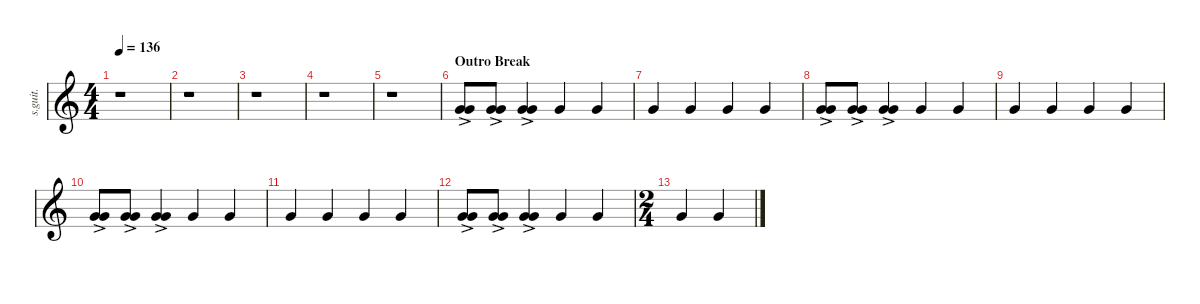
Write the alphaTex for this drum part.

\defaultSystemsLayout 4
\hideDynamics
\bracketExtendMode nobrackets
\track ("Shawn Crahan " "s.guit.") {instrument percussion}
\staff {score}
\articulation defaults
\ts (4 4)
\tempo 136
\clef g2
\ks c
r.1{dy fff} |
r.1 |
r.1 |
r.1 |
r.1 |
\section ("" "Outro Break")
("Very Low Tom (hit)"{ac} "Very Low Tom (hit)"{ac}).8{lyrics (0 "") lyrics (1 "") lyrics (2 "") lyrics (3 "") lyrics (4 "")} ("Very Low Tom (hit)"{ac} "Very Low Tom (hit)"{ac}).8{lyrics (0 "") lyrics (1 "") lyrics (2 "") lyrics (3 "") lyrics (4 "")} ("Very Low Tom (hit)"{ac} "Very Low Tom (hit)"{ac}).4{lyrics (0 "") lyrics (1 "") lyrics (2 "") lyrics (3 "") lyrics (4 "")} "Very Low Tom (hit)".4{lyrics (0 "") lyrics (1 "") lyrics (2 "") lyrics (3 "") lyrics (4 "")} "Very Low Tom (hit)".4{lyrics (0 "") lyrics (1 "") lyrics (2 "") lyrics (3 "") lyrics (4 "")} |
"Very Low Tom (hit)".4{lyrics (0 "") lyrics (1 "") lyrics (2 "") lyrics (3 "") lyrics (4 "")} "Very Low Tom (hit)".4{lyrics (0 "") lyrics (1 "") lyrics (2 "") lyrics (3 "") lyrics (4 "")} "Very Low Tom (hit)".4{lyrics (0 "") lyrics (1 "") lyrics (2 "") lyrics (3 "") lyrics (4 "")} "Very Low Tom (hit)".4{lyrics (0 "") lyrics (1 "") lyrics (2 "") lyrics (3 "") lyrics (4 "")} |
("Very Low Tom (hit)"{ac} "Very Low Tom (hit)"{ac}).8{lyrics (0 "") lyrics (1 "") lyrics (2 "") lyrics (3 "") lyrics (4 "")} ("Very Low Tom (hit)"{ac} "Very Low Tom (hit)"{ac}).8{lyrics (0 "") lyrics (1 "") lyrics (2 "") lyrics (3 "") lyrics (4 "")} ("Very Low Tom (hit)"{ac} "Very Low Tom (hit)"{ac}).4{lyrics (0 "") lyrics (1 "") lyrics (2 "") lyrics (3 "") lyrics (4 "")} "Very Low Tom (hit)".4{lyrics (0 "") lyrics (1 "") lyrics (2 "") lyrics (3 "") lyrics (4 "")} "Very Low Tom (hit)".4{lyrics (0 "") lyrics (1 "") lyrics (2 "") lyrics (3 "") lyrics (4 "")} |
"Very Low Tom (hit)".4{lyrics (0 "") lyrics (1 "") lyrics (2 "") lyrics (3 "") lyrics (4 "")} "Very Low Tom (hit)".4{lyrics (0 "") lyrics (1 "") lyrics (2 "") lyrics (3 "") lyrics (4 "")} "Very Low Tom (hit)".4{lyrics (0 "") lyrics (1 "") lyrics (2 "") lyrics (3 "") lyrics (4 "")} "Very Low Tom (hit)".4{lyrics (0 "") lyrics (1 "") lyrics (2 "") lyrics (3 "") lyrics (4 "")} |
("Very Low Tom (hit)"{ac} "Very Low Tom (hit)"{ac}).8{lyrics (0 "") lyrics (1 "") lyrics (2 "") lyrics (3 "") lyrics (4 "")} ("Very Low Tom (hit)"{ac} "Very Low Tom (hit)"{ac}).8{lyrics (0 "") lyrics (1 "") lyrics (2 "") lyrics (3 "") lyrics (4 "")} ("Very Low Tom (hit)"{ac} "Very Low Tom (hit)"{ac}).4{lyrics (0 "") lyrics (1 "") lyrics (2 "") lyrics (3 "") lyrics (4 "")} "Very Low Tom (hit)".4{lyrics (0 "") lyrics (1 "") lyrics (2 "") lyrics (3 "") lyrics (4 "")} "Very Low Tom (hit)".4{lyrics (0 "") lyrics (1 "") lyrics (2 "") lyrics (3 "") lyrics (4 "")} |
"Very Low Tom (hit)".4{lyrics (0 "") lyrics (1 "") lyrics (2 "") lyrics (3 "") lyrics (4 "")} "Very Low Tom (hit)".4{lyrics (0 "") lyrics (1 "") lyrics (2 "") lyrics (3 "") lyrics (4 "")} "Very Low Tom (hit)".4{lyrics (0 "") lyrics (1 "") lyrics (2 "") lyrics (3 "") lyrics (4 "")} "Very Low Tom (hit)".4{lyrics (0 "") lyrics (1 "") lyrics (2 "") lyrics (3 "") lyrics (4 "")} |
("Very Low Tom (hit)"{ac} "Very Low Tom (hit)"{ac}).8{lyrics (0 "") lyrics (1 "") lyrics (2 "") lyrics (3 "") lyrics (4 "")} ("Very Low Tom (hit)"{ac} "Very Low Tom (hit)"{ac}).8{lyrics (0 "") lyrics (1 "") lyrics (2 "") lyrics (3 "") lyrics (4 "")} ("Very Low Tom (hit)"{ac} "Very Low Tom (hit)"{ac}).4{lyrics (0 "") lyrics (1 "") lyrics (2 "") lyrics (3 "") lyrics (4 "")} "Very Low Tom (hit)".4{lyrics (0 "") lyrics (1 "") lyrics (2 "") lyrics (3 "") lyrics (4 "")} "Very Low Tom (hit)".4{lyrics (0 "") lyrics (1 "") lyrics (2 "") lyrics (3 "") lyrics (4 "")} |
\ts (2 4)
\beaming (8 2 2 2 2)
"Very Low Tom (hit)".4{lyrics (0 "") lyrics (1 "") lyrics (2 "") lyrics (3 "") lyrics (4 "")} "Very Low Tom (hit)".4{lyrics (0 "") lyrics (1 "") lyrics (2 "") lyrics (3 "") lyrics (4 "")}
